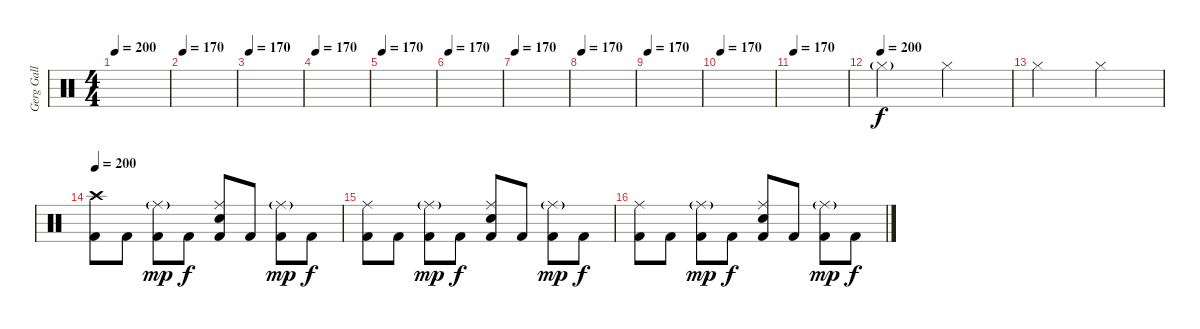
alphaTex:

\track ("Gerg Gall (Drums)" "Gerg Gall ") {instrument percussion}
\staff {score}
\articulation defaults
\ts (4 4)
\tempo 200
\tempo 170
\tempo 200
\clef neutral
\ks c
|
\tempo 170
|
\tempo 170
|
\tempo 170
|
\tempo 170
|
\tempo 170
|
\tempo 170
|
\tempo 170
|
\tempo 170
|
\tempo 170
|
\tempo 170
|
\tempo (200)
"Hi-Hat (closed)"{g}.2 "Hi-Hat (closed)".2{dy f} |
"Hi-Hat (closed)".2 "Hi-Hat (closed)".2 |
\tempo 200
("Crash high (hit)" "Kick (hit) 2").8 "Kick (hit) 2".8 ("Ride (middle)"{g} "Kick (hit) 2").8{dy mp} "Kick (hit) 2".8{dy f} ("Snare (hit) 2" "Ride (middle)" "Kick (hit) 2").8 "Kick (hit) 2".8 ("Ride (middle)"{g} "Kick (hit) 2").8{dy mp} "Kick (hit) 2".8{dy f} |
("Ride (middle)" "Kick (hit) 2").8 "Kick (hit) 2".8 ("Ride (middle)"{g} "Kick (hit) 2").8{dy mp} "Kick (hit) 2".8{dy f} ("Snare (hit) 2" "Ride (middle)" "Kick (hit) 2").8 "Kick (hit) 2".8 ("Ride (middle)"{g} "Kick (hit) 2").8{dy mp} "Kick (hit) 2".8{dy f} |
("Ride (middle)" "Kick (hit) 2").8 "Kick (hit) 2".8 ("Ride (middle)"{g} "Kick (hit) 2").8{dy mp} "Kick (hit) 2".8{dy f} ("Snare (hit) 2" "Ride (middle)" "Kick (hit) 2").8 "Kick (hit) 2".8 ("Ride (middle)"{g} "Kick (hit) 2").8{dy mp} "Kick (hit) 2".8{dy f}
